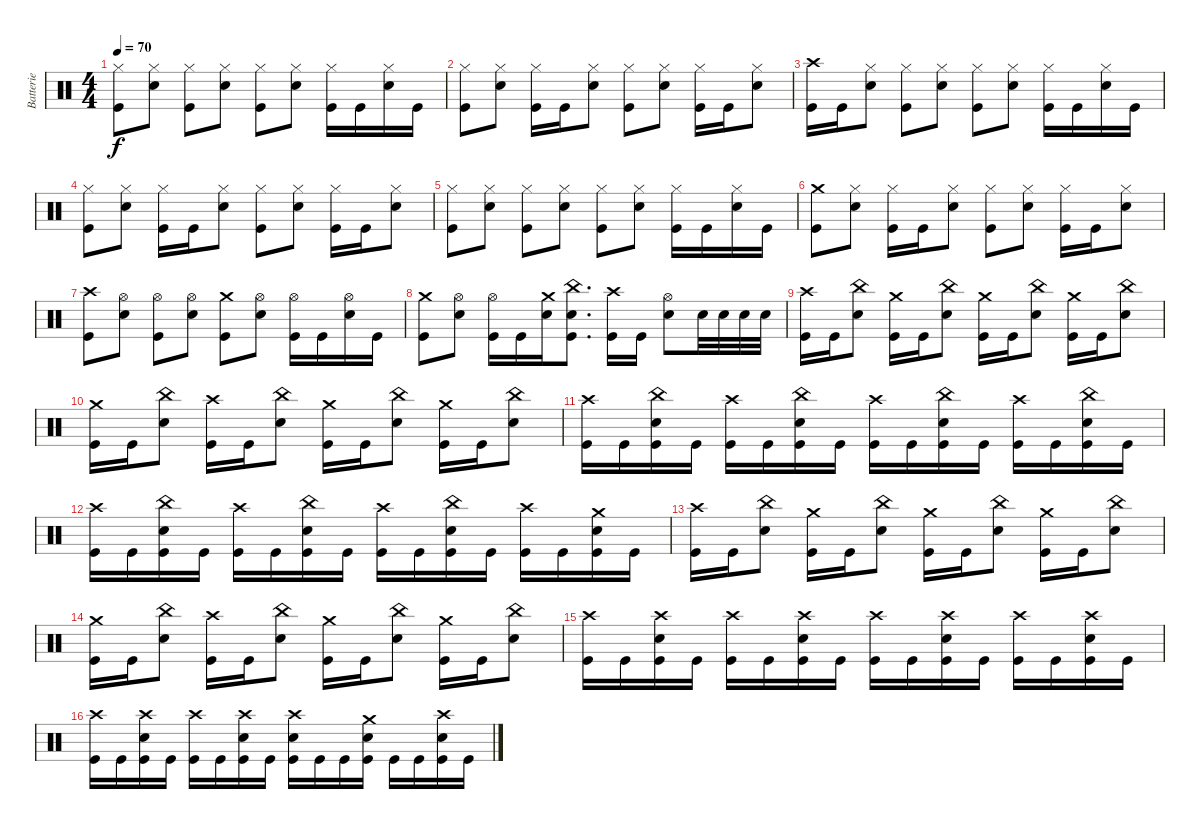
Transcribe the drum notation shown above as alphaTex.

\track ("Batterie" "Batterie") {instrument percussion}
\staff {score}
\articulation defaults
\ts (4 4)
\tempo 70
\clef neutral
\ks c
("Kick (hit)" "Hi-Hat (closed)").8{dy f} ("Hi-Hat (closed)" "Snare (hit) 2").8 ("Kick (hit)" "Hi-Hat (closed)").8 ("Snare (hit) 2" "Hi-Hat (closed)").8 ("Kick (hit)" "Hi-Hat (closed)").8 ("Snare (hit) 2" "Hi-Hat (closed)").8 ("Kick (hit)" "Hi-Hat (closed)").16 "Kick (hit)".16 ("Snare (hit) 2" "Hi-Hat (closed)").16 "Kick (hit)".16 |
("Kick (hit)" "Hi-Hat (closed)").8 ("Hi-Hat (closed)" "Snare (hit) 2").8 ("Kick (hit)" "Hi-Hat (closed)").16 "Kick (hit)".16 ("Snare (hit) 2" "Hi-Hat (closed)").8 ("Kick (hit)" "Hi-Hat (closed)").8 ("Snare (hit) 2" "Hi-Hat (closed)").8 ("Kick (hit)" "Hi-Hat (closed)").16 "Kick (hit)".16 ("Snare (hit) 2" "Hi-Hat (closed)").8 |
("Kick (hit)" "Crash high (hit)").16 "Kick (hit)".16 ("Hi-Hat (closed)" "Snare (hit) 2").8 ("Kick (hit)" "Hi-Hat (closed)").8 ("Snare (hit) 2" "Hi-Hat (closed)").8 ("Kick (hit)" "Hi-Hat (closed)").8 ("Snare (hit) 2" "Hi-Hat (closed)").8 ("Kick (hit)" "Hi-Hat (closed)").16 "Kick (hit)".16 ("Snare (hit) 2" "Hi-Hat (closed)").16 "Kick (hit)".16 |
("Kick (hit)" "Hi-Hat (closed)").8 ("Hi-Hat (closed)" "Snare (hit) 2").8 ("Kick (hit)" "Hi-Hat (closed)").16 "Kick (hit)".16 ("Snare (hit) 2" "Hi-Hat (closed)").8 ("Kick (hit)" "Hi-Hat (closed)").8 ("Snare (hit) 2" "Hi-Hat (closed)").8 ("Kick (hit)" "Hi-Hat (closed)").16 "Kick (hit)".16 ("Snare (hit) 2" "Hi-Hat (closed)").8 |
("Kick (hit)" "Hi-Hat (closed)").8 ("Hi-Hat (closed)" "Snare (hit) 2").8 ("Kick (hit)" "Hi-Hat (closed)").8 ("Snare (hit) 2" "Hi-Hat (closed)").8 ("Kick (hit)" "Hi-Hat (closed)").8 ("Snare (hit) 2" "Hi-Hat (closed)").8 ("Kick (hit)" "Hi-Hat (closed)").16 "Kick (hit)".16 ("Snare (hit) 2" "Hi-Hat (closed)").16 "Kick (hit)".16 |
("Kick (hit)" "Crash medium (hit)").8 ("Hi-Hat (closed)" "Snare (hit) 2").8 ("Kick (hit)" "Hi-Hat (closed)").16 "Kick (hit)".16 ("Snare (hit) 2" "Hi-Hat (closed)").8 ("Kick (hit)" "Hi-Hat (closed)").8 ("Snare (hit) 2" "Hi-Hat (closed)").8 ("Kick (hit)" "Hi-Hat (closed)").16 "Kick (hit)".16 ("Snare (hit) 2" "Hi-Hat (closed)").8 |
("Kick (hit)" "Crash high (hit)").8 ("Hi-Hat (open)" "Snare (hit) 2").8 ("Kick (hit)" "Hi-Hat (open)").8 ("Snare (hit) 2" "Hi-Hat (open)").8 ("Kick (hit)" "Crash medium (hit)").8 ("Snare (hit) 2" "Hi-Hat (open)").8 ("Kick (hit)" "Hi-Hat (open)").16 "Kick (hit)".16 ("Snare (hit) 2" "Hi-Hat (open)").16 "Kick (hit)".16 |
("Kick (hit)" "Crash medium (hit)").8 ("Hi-Hat (open)" "Snare (hit) 2").8 ("Kick (hit)" "Hi-Hat (open)").16 "Kick (hit)".16 ("Snare (hit) 2" "Crash medium (hit)").16 ("Kick (hit)" "China (hit)" "Snare (hit) 2").8{d} ("Kick (hit)" "Crash high (hit)").16 "Kick (hit)".16 ("Snare (hit) 2" "Hi-Hat (open)").8 "Snare (hit) 2".32 "Snare (hit) 2".32 "Snare (hit) 2".32 "Snare (hit) 2".32 |
("Kick (hit)" "Crash high (hit)").16 "Kick (hit)".16 ("Snare (hit) 2" "China (hit)").8 ("Kick (hit)" "Crash medium (hit)").16 "Kick (hit)".16 ("Snare (hit) 2" "China (hit)").8 ("Kick (hit)" "Crash medium (hit)").16 "Kick (hit)".16 ("Snare (hit) 2" "China (hit)").8 ("Kick (hit)" "Crash medium (hit)").16 "Kick (hit)".16 ("Snare (hit) 2" "China (hit)").8 |
("Kick (hit)" "Crash medium (hit)").16 "Kick (hit)".16 ("Snare (hit) 2" "China (hit)").8 ("Kick (hit)" "Crash high (hit)").16 "Kick (hit)".16 ("Snare (hit) 2" "China (hit)").8 ("Kick (hit)" "Crash medium (hit)").16 "Kick (hit)".16 ("Snare (hit) 2" "China (hit)").8 ("Kick (hit)" "Crash medium (hit)").16 "Kick (hit)".16 ("Snare (hit) 2" "China (hit)").8 |
("Kick (hit)" "Crash high (hit)").16 "Kick (hit)".16 ("Snare (hit) 2" "China (hit)" "Kick (hit)").16 "Kick (hit)".16 ("Kick (hit)" "Crash high (hit)").16 "Kick (hit)".16 ("Snare (hit) 2" "China (hit)" "Kick (hit)").16 "Kick (hit)".16 ("Kick (hit)" "Crash high (hit)").16 "Kick (hit)".16 ("Snare (hit) 2" "China (hit)" "Kick (hit)").16 "Kick (hit)".16 ("Kick (hit)" "Crash high (hit)").16 "Kick (hit)".16 ("Snare (hit) 2" "China (hit)" "Kick (hit)").16 "Kick (hit)".16 |
("Kick (hit)" "Crash high (hit)").16 "Kick (hit)".16 ("Snare (hit) 2" "China (hit)" "Kick (hit)").16 "Kick (hit)".16 ("Kick (hit)" "Crash high (hit)").16 "Kick (hit)".16 ("Snare (hit) 2" "China (hit)" "Kick (hit)").16 "Kick (hit)".16 ("Kick (hit)" "Crash high (hit)").16 "Kick (hit)".16 ("Snare (hit) 2" "China (hit)" "Kick (hit)").16 "Kick (hit)".16 ("Kick (hit)" "Crash high (hit)").16 "Kick (hit)".16 ("Snare (hit) 2" "Crash medium (hit)" "Kick (hit)").16 "Kick (hit)".16 |
("Kick (hit)" "Crash high (hit)").16 "Kick (hit)".16 ("Snare (hit) 2" "China (hit)").8 ("Kick (hit)" "Crash medium (hit)").16 "Kick (hit)".16 ("Snare (hit) 2" "China (hit)").8 ("Kick (hit)" "Crash medium (hit)").16 "Kick (hit)".16 ("Snare (hit) 2" "China (hit)").8 ("Kick (hit)" "Crash medium (hit)").16 "Kick (hit)".16 ("Snare (hit) 2" "China (hit)").8 |
("Kick (hit)" "Crash medium (hit)").16 "Kick (hit)".16 ("Snare (hit) 2" "China (hit)").8 ("Kick (hit)" "Crash high (hit)").16 "Kick (hit)".16 ("Snare (hit) 2" "China (hit)").8 ("Kick (hit)" "Crash medium (hit)").16 "Kick (hit)".16 ("Snare (hit) 2" "China (hit)").8 ("Kick (hit)" "Crash medium (hit)").16 "Kick (hit)".16 ("Snare (hit) 2" "China (hit)").8 |
("Kick (hit)" "Crash high (hit)").16 "Kick (hit)".16 ("Snare (hit) 2" "Crash high (hit)" "Kick (hit)").16 "Kick (hit)".16 ("Kick (hit)" "Crash high (hit)").16 "Kick (hit)".16 ("Snare (hit) 2" "Crash high (hit)" "Kick (hit)").16 "Kick (hit)".16 ("Kick (hit)" "Crash high (hit)").16 "Kick (hit)".16 ("Snare (hit) 2" "Crash high (hit)" "Kick (hit)").16 "Kick (hit)".16 ("Kick (hit)" "Crash high (hit)").16 "Kick (hit)".16 ("Snare (hit) 2" "Crash high (hit)" "Kick (hit)").16 "Kick (hit)".16 |
("Kick (hit)" "Crash high (hit)").16 "Kick (hit)".16 ("Snare (hit) 2" "Crash high (hit)" "Kick (hit)").16 "Kick (hit)".16 ("Kick (hit)" "Crash high (hit)").16 "Kick (hit)".16 ("Snare (hit) 2" "Crash high (hit)" "Kick (hit)").16 "Kick (hit)".16 ("Kick (hit)" "Crash high (hit)" "Snare (hit) 2").16 "Kick (hit)".16 "Kick (hit)".16 ("Snare (hit) 2" "Kick (hit)" "Crash medium (hit)").16 "Kick (hit)".16 "Kick (hit)".16 ("Kick (hit)" "Crash high (hit)" "Snare (hit) 2").16 "Kick (hit)".16
